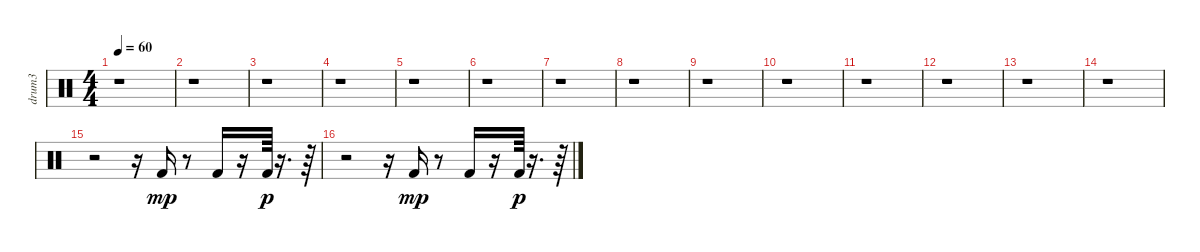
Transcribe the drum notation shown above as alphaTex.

\track ("drum3" "drum3") {instrument percussion}
\staff {score}
\articulation defaults
\ts (4 4)
\tempo 60
\clef neutral
\ks c
r.1{dy mp} |
r.1 |
r.1 |
r.1 |
r.1 |
r.1 |
r.1 |
r.1 |
r.1 |
r.1 |
r.1 |
r.1 |
r.1 |
r.1 |
r.2 r.16 "Kick (hit) 2".16 r.8 "Kick (hit) 2".16 r.16 "Kick (hit) 2".64{dy p} r.16{d} r.64 |
r.2 r.16 "Kick (hit) 2".16{dy mp} r.8 "Kick (hit) 2".16 r.16 "Kick (hit) 2".64{dy p} r.16{d} r.64
